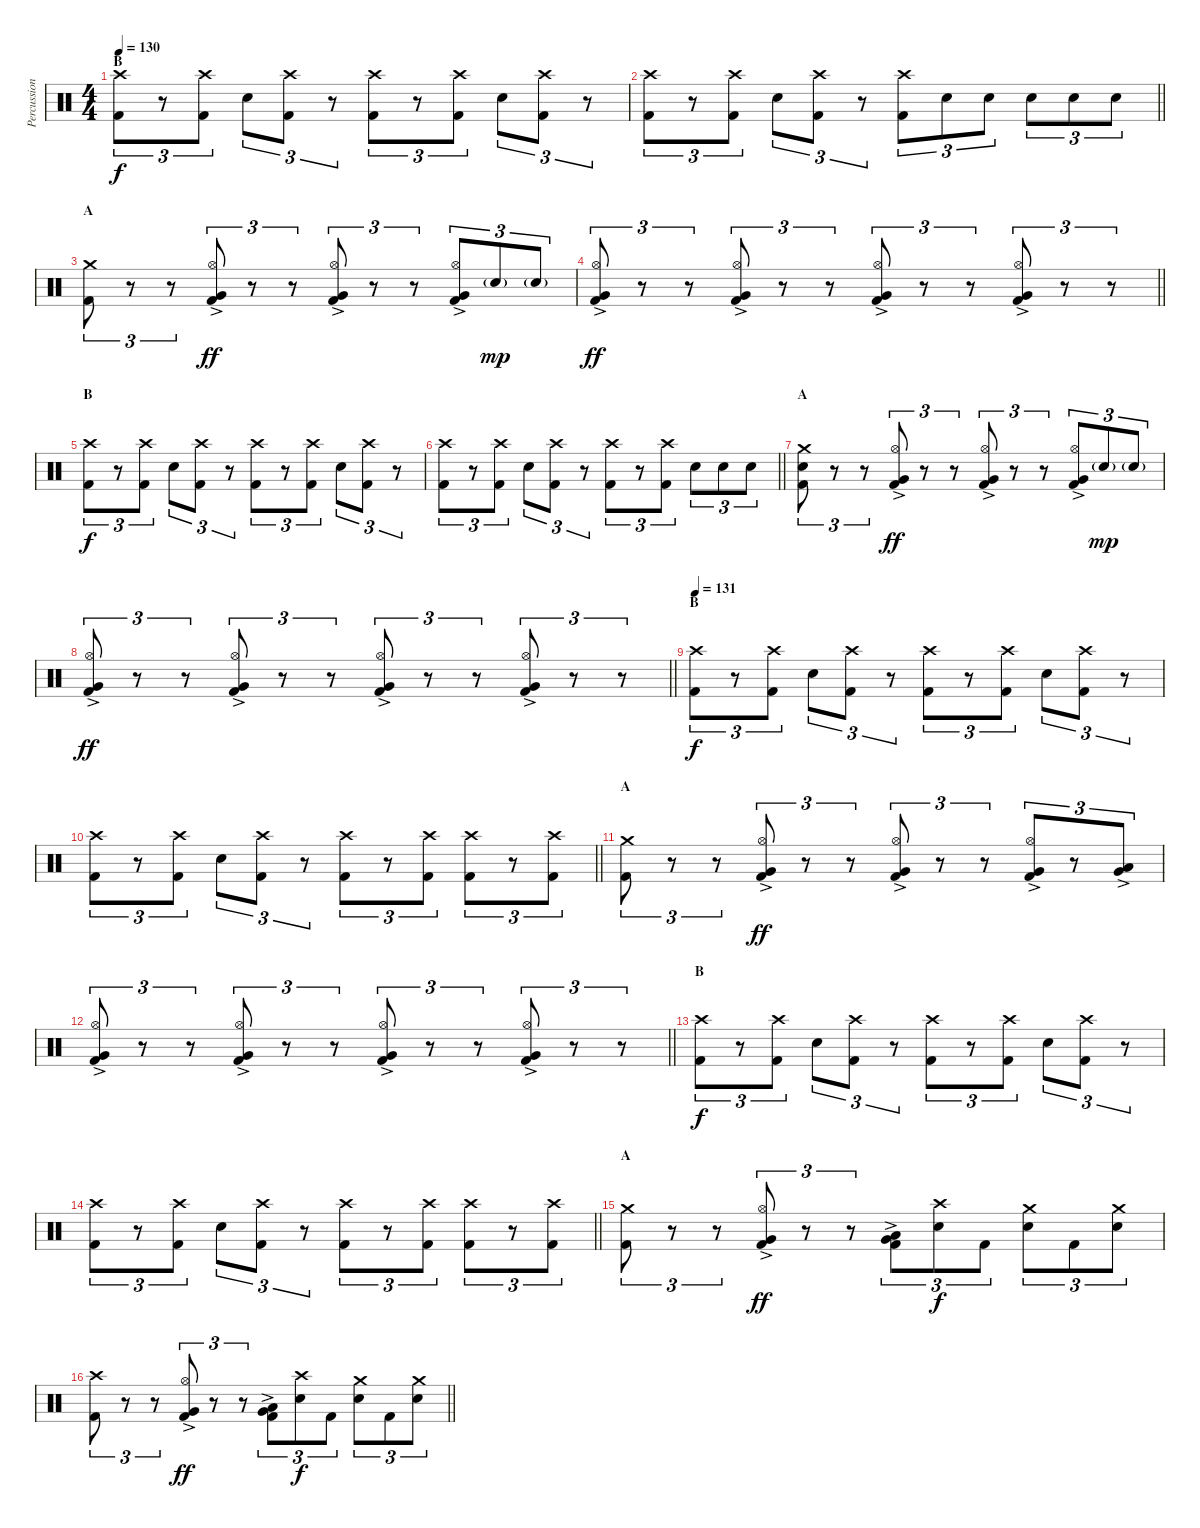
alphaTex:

\track ("Percussion" "Percussion") {instrument percussion}
\staff {score}
\articulation defaults
\ts (4 4)
\section ("" "B")
\tempo 130
\clef neutral
\ks c
("Crash high (hit)" "Kick (hit) 2").8{tu (3 2) dy f} r.8{tu (3 2)} ("Crash high (hit)" "Kick (hit) 2").8{tu (3 2)} "Electric Snare (hit)".8{tu (3 2)} ("Crash high (hit)" "Kick (hit) 2").8{tu (3 2)} r.8{tu (3 2)} ("Crash high (hit)" "Kick (hit) 2").8{tu (3 2)} r.8{tu (3 2)} ("Crash high (hit)" "Kick (hit) 2").8{tu (3 2)} "Electric Snare (hit)".8{tu (3 2)} ("Crash high (hit)" "Kick (hit) 2").8{tu (3 2)} r.8{tu (3 2)} |
\barLineRight lightlight
("Crash high (hit)" "Kick (hit) 2").8{tu (3 2)} r.8{tu (3 2)} ("Crash high (hit)" "Kick (hit) 2").8{tu (3 2)} "Electric Snare (hit)".8{tu (3 2)} ("Crash high (hit)" "Kick (hit) 2").8{tu (3 2)} r.8{tu (3 2)} ("Crash high (hit)" "Kick (hit) 2").8{tu (3 2)} "Electric Snare (hit)".8{tu (3 2)} "Electric Snare (hit)".8{tu (3 2)} "Electric Snare (hit)".8{tu (3 2)} "Electric Snare (hit)".8{tu (3 2)} "Electric Snare (hit)".8{tu (3 2)} |
\section ("" "A")
("Crash medium (hit)" "Kick (hit) 2").8{tu (3 2)} r.8{tu (3 2)} r.8{tu (3 2)} ("Hi-Hat (open)" "Very Low Tom (hit)"{ac} "Kick (hit) 2").8{tu (3 2) dy ff} r.8{tu (3 2)} r.8{tu (3 2)} ("Hi-Hat (open)" "Very Low Tom (hit)"{ac} "Kick (hit) 2").8{tu (3 2)} r.8{tu (3 2)} r.8{tu (3 2)} ("Hi-Hat (open)" "Very Low Tom (hit)"{ac} "Kick (hit) 2").8{tu (3 2)} "Electric Snare (hit)"{g}.8{tu (3 2) dy mp} "Electric Snare (hit)"{g}.8{tu (3 2)} |
\barLineRight lightlight
("Hi-Hat (open)" "Very Low Tom (hit)"{ac} "Kick (hit) 2").8{tu (3 2) dy ff} r.8{tu (3 2)} r.8{tu (3 2)} ("Hi-Hat (open)" "Very Low Tom (hit)"{ac} "Kick (hit) 2").8{tu (3 2)} r.8{tu (3 2)} r.8{tu (3 2)} ("Hi-Hat (open)" "Very Low Tom (hit)"{ac} "Kick (hit) 2").8{tu (3 2)} r.8{tu (3 2)} r.8{tu (3 2)} ("Hi-Hat (open)" "Very Low Tom (hit)"{ac} "Kick (hit) 2").8{tu (3 2)} r.8{tu (3 2)} r.8{tu (3 2)} |
\section ("" "B")
("Crash high (hit)" "Kick (hit) 2").8{tu (3 2) dy f} r.8{tu (3 2)} ("Crash high (hit)" "Kick (hit) 2").8{tu (3 2)} "Electric Snare (hit)".8{tu (3 2)} ("Crash high (hit)" "Kick (hit) 2").8{tu (3 2)} r.8{tu (3 2)} ("Crash high (hit)" "Kick (hit) 2").8{tu (3 2)} r.8{tu (3 2)} ("Crash high (hit)" "Kick (hit) 2").8{tu (3 2)} "Electric Snare (hit)".8{tu (3 2)} ("Crash high (hit)" "Kick (hit) 2").8{tu (3 2)} r.8{tu (3 2)} |
\barLineRight lightlight
("Crash high (hit)" "Kick (hit) 2").8{tu (3 2)} r.8{tu (3 2)} ("Crash high (hit)" "Kick (hit) 2").8{tu (3 2)} "Electric Snare (hit)".8{tu (3 2)} ("Crash high (hit)" "Kick (hit) 2").8{tu (3 2)} r.8{tu (3 2)} ("Crash high (hit)" "Kick (hit) 2").8{tu (3 2)} r.8{tu (3 2)} ("Crash high (hit)" "Kick (hit) 2").8{tu (3 2)} "Electric Snare (hit)".8{tu (3 2)} "Electric Snare (hit)".8{tu (3 2)} "Electric Snare (hit)".8{tu (3 2)} |
\section ("" "A")
("Crash medium (hit)" "Electric Snare (hit)" "Kick (hit) 2").8{tu (3 2)} r.8{tu (3 2)} r.8{tu (3 2)} ("Hi-Hat (open)" "Very Low Tom (hit)"{ac} "Kick (hit) 2").8{tu (3 2) dy ff} r.8{tu (3 2)} r.8{tu (3 2)} ("Hi-Hat (open)" "Very Low Tom (hit)"{ac} "Kick (hit) 2").8{tu (3 2)} r.8{tu (3 2)} r.8{tu (3 2)} ("Hi-Hat (open)" "Very Low Tom (hit)"{ac} "Kick (hit) 2").8{tu (3 2)} "Electric Snare (hit)"{g}.8{tu (3 2) dy mp} "Electric Snare (hit)"{g}.8{tu (3 2)} |
\barLineRight lightlight
("Hi-Hat (open)" "Very Low Tom (hit)"{ac} "Kick (hit) 2").8{tu (3 2) dy ff} r.8{tu (3 2)} r.8{tu (3 2)} ("Hi-Hat (open)" "Very Low Tom (hit)"{ac} "Kick (hit) 2").8{tu (3 2)} r.8{tu (3 2)} r.8{tu (3 2)} ("Hi-Hat (open)" "Very Low Tom (hit)"{ac} "Kick (hit) 2").8{tu (3 2)} r.8{tu (3 2)} r.8{tu (3 2)} ("Hi-Hat (open)" "Very Low Tom (hit)"{ac} "Kick (hit) 2").8{tu (3 2)} r.8{tu (3 2)} r.8{tu (3 2)} |
\section ("" "B")
\tempo 131
("Crash high (hit)" "Kick (hit) 2").8{tu (3 2) dy f} r.8{tu (3 2)} ("Crash high (hit)" "Kick (hit) 2").8{tu (3 2)} "Electric Snare (hit)".8{tu (3 2)} ("Crash high (hit)" "Kick (hit) 2").8{tu (3 2)} r.8{tu (3 2)} ("Crash high (hit)" "Kick (hit) 2").8{tu (3 2)} r.8{tu (3 2)} ("Crash high (hit)" "Kick (hit) 2").8{tu (3 2)} "Electric Snare (hit)".8{tu (3 2)} ("Crash high (hit)" "Kick (hit) 2").8{tu (3 2)} r.8{tu (3 2)} |
\barLineRight lightlight
("Crash high (hit)" "Kick (hit) 2").8{tu (3 2)} r.8{tu (3 2)} ("Crash high (hit)" "Kick (hit) 2").8{tu (3 2)} "Electric Snare (hit)".8{tu (3 2)} ("Crash high (hit)" "Kick (hit) 2").8{tu (3 2)} r.8{tu (3 2)} ("Crash high (hit)" "Kick (hit) 2").8{tu (3 2)} r.8{tu (3 2)} ("Crash high (hit)" "Kick (hit) 2").8{tu (3 2)} ("Crash high (hit)" "Kick (hit) 2").8{tu (3 2)} r.8{tu (3 2)} ("Crash high (hit)" "Kick (hit) 2").8{tu (3 2)} |
\section ("" "A")
("Crash medium (hit)" "Kick (hit) 2").8{tu (3 2)} r.8{tu (3 2)} r.8{tu (3 2)} ("Hi-Hat (open)" "Very Low Tom (hit)"{ac} "Kick (hit) 2").8{tu (3 2) dy ff} r.8{tu (3 2)} r.8{tu (3 2)} ("Hi-Hat (open)" "Very Low Tom (hit)"{ac} "Kick (hit) 2").8{tu (3 2)} r.8{tu (3 2)} r.8{tu (3 2)} ("Hi-Hat (open)" "Very Low Tom (hit)"{ac} "Kick (hit) 2").8{tu (3 2)} r.8{tu (3 2)} ("Low Tom (hit)"{ac} "Very Low Tom (hit)"{ac}).8{tu (3 2)} |
\barLineRight lightlight
("Hi-Hat (open)" "Very Low Tom (hit)"{ac} "Kick (hit) 2").8{tu (3 2)} r.8{tu (3 2)} r.8{tu (3 2)} ("Hi-Hat (open)" "Very Low Tom (hit)"{ac} "Kick (hit) 2").8{tu (3 2)} r.8{tu (3 2)} r.8{tu (3 2)} ("Hi-Hat (open)" "Very Low Tom (hit)"{ac} "Kick (hit) 2").8{tu (3 2)} r.8{tu (3 2)} r.8{tu (3 2)} ("Hi-Hat (open)" "Very Low Tom (hit)"{ac} "Kick (hit) 2").8{tu (3 2)} r.8{tu (3 2)} r.8{tu (3 2)} |
\section ("" "B")
("Crash high (hit)" "Kick (hit) 2").8{tu (3 2) dy f} r.8{tu (3 2)} ("Crash high (hit)" "Kick (hit) 2").8{tu (3 2)} "Electric Snare (hit)".8{tu (3 2)} ("Crash high (hit)" "Kick (hit) 2").8{tu (3 2)} r.8{tu (3 2)} ("Crash high (hit)" "Kick (hit) 2").8{tu (3 2)} r.8{tu (3 2)} ("Crash high (hit)" "Kick (hit) 2").8{tu (3 2)} "Electric Snare (hit)".8{tu (3 2)} ("Crash high (hit)" "Kick (hit) 2").8{tu (3 2)} r.8{tu (3 2)} |
\barLineRight lightlight
("Crash high (hit)" "Kick (hit) 2").8{tu (3 2)} r.8{tu (3 2)} ("Crash high (hit)" "Kick (hit) 2").8{tu (3 2)} "Electric Snare (hit)".8{tu (3 2)} ("Crash high (hit)" "Kick (hit) 2").8{tu (3 2)} r.8{tu (3 2)} ("Crash high (hit)" "Kick (hit) 2").8{tu (3 2)} r.8{tu (3 2)} ("Crash high (hit)" "Kick (hit) 2").8{tu (3 2)} ("Crash high (hit)" "Kick (hit) 2").8{tu (3 2)} r.8{tu (3 2)} ("Crash high (hit)" "Kick (hit) 2").8{tu (3 2)} |
\section ("" "A")
("Crash medium (hit)" "Kick (hit) 2").8{tu (3 2)} r.8{tu (3 2)} r.8{tu (3 2)} ("Hi-Hat (open)" "Very Low Tom (hit)"{ac} "Kick (hit) 2").8{tu (3 2) dy ff} r.8{tu (3 2)} r.8{tu (3 2)} ("Very Low Tom (hit)"{ac} "Low Floor Tom (hit)"{ac} "Kick (hit) 2").8{tu (3 2)} ("Crash high (hit)" "Electric Snare (hit)").8{tu (3 2) dy f} "Kick (hit) 2".8{tu (3 2)} ("Crash medium (hit)" "Electric Snare (hit)").8{tu (3 2)} "Kick (hit) 2".8{tu (3 2)} ("Crash medium (hit)" "Electric Snare (hit)").8{tu (3 2)} |
\barLineRight lightlight
("Crash high (hit)" "Kick (hit) 2").8{tu (3 2)} r.8{tu (3 2)} r.8{tu (3 2)} ("Hi-Hat (open)" "Very Low Tom (hit)"{ac} "Kick (hit) 2").8{tu (3 2) dy ff} r.8{tu (3 2)} r.8{tu (3 2)} ("Very Low Tom (hit)"{ac} "Low Floor Tom (hit)"{ac} "Kick (hit) 2").8{tu (3 2)} ("Crash high (hit)" "Electric Snare (hit)").8{tu (3 2) dy f} "Kick (hit) 2".8{tu (3 2)} ("Crash medium (hit)" "Electric Snare (hit)").8{tu (3 2)} "Kick (hit) 2".8{tu (3 2)} ("Crash medium (hit)" "Electric Snare (hit)").8{tu (3 2)}
